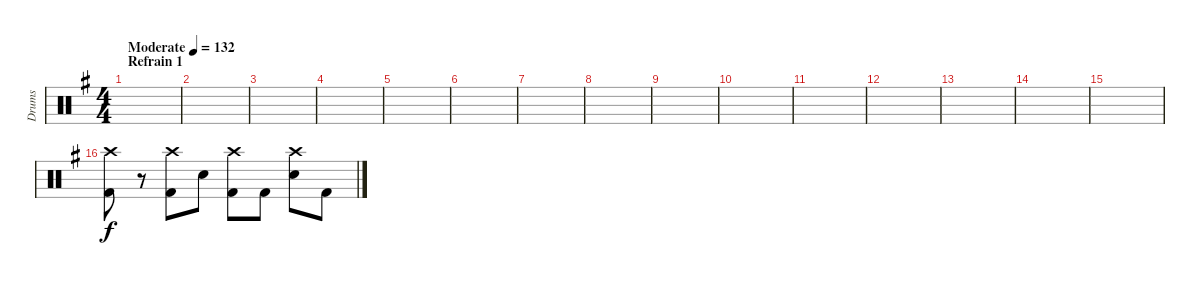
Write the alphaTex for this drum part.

\track ("Drums" "Drums") {instrument percussion}
\staff {score}
\articulation defaults
\ts (4 4)
\section ("" "Refrain 1")
\tempo (132 "Moderate")
\clef neutral
\ks eminor
|
|
|
|
|
|
|
|
|
|
|
|
|
|
|
("Crash high (hit)" "Kick (hit) 2").8 r.8 ("Crash high (hit)" "Kick (hit) 2").8 "Electric Snare (hit)".8 ("Crash high (hit)" "Kick (hit) 2").8 "Kick (hit) 2".8 ("Crash high (hit)" "Electric Snare (hit)").8 "Kick (hit) 2".8
